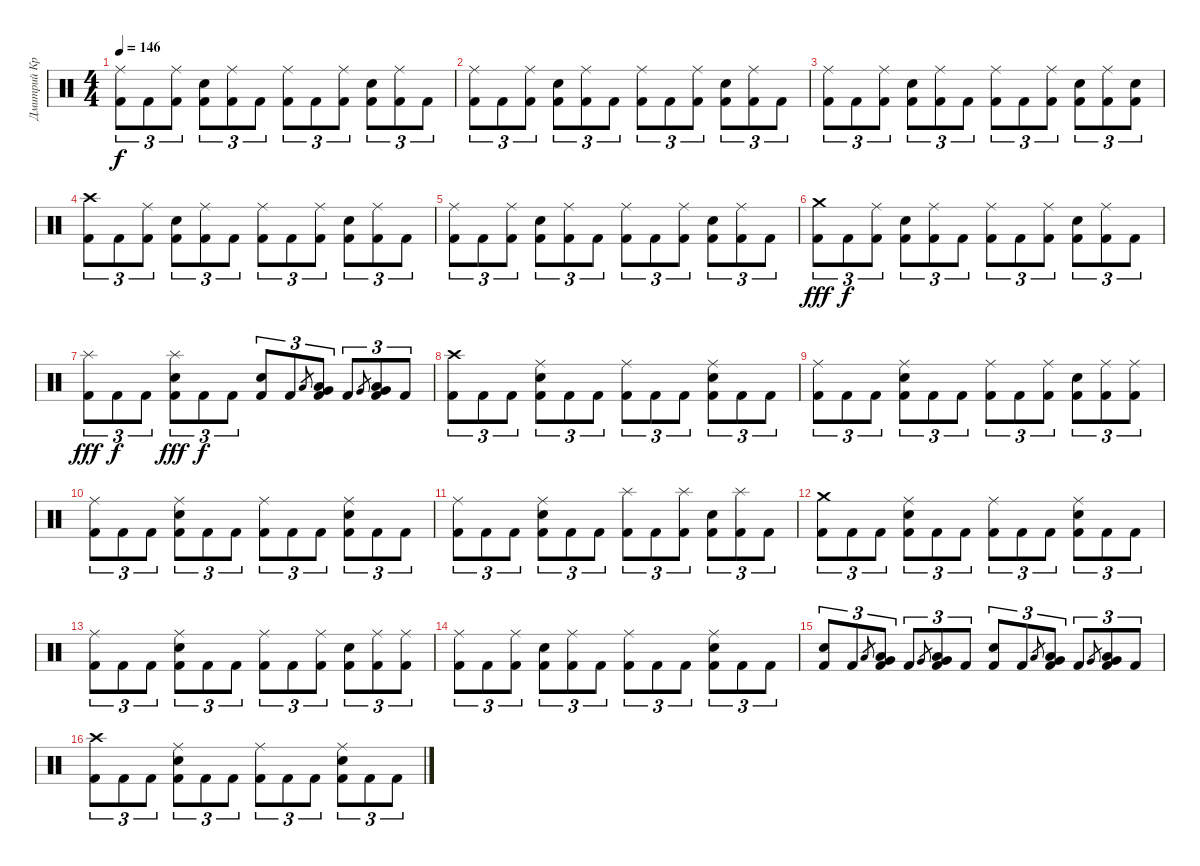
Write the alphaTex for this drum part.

\track ("Дмитрий Кривенков" "Дмитрий Кр") {instrument percussion}
\staff {score}
\articulation defaults
\ts (4 4)
\tempo 146
\clef neutral
\ks c
("Ride (middle)" "Kick (hit) 2").8{tu (3 2) dy f} "Kick (hit) 2".8{tu (3 2)} ("Ride (middle)" "Kick (hit) 2").8{tu (3 2)} ("Electric Snare (hit)" "Kick (hit) 2").8{tu (3 2)} ("Ride (middle)" "Kick (hit) 2").8{tu (3 2)} "Kick (hit) 2".8{tu (3 2)} ("Ride (middle)" "Kick (hit) 2").8{tu (3 2)} "Kick (hit) 2".8{tu (3 2)} ("Ride (middle)" "Kick (hit) 2").8{tu (3 2)} ("Electric Snare (hit)" "Kick (hit) 2").8{tu (3 2)} ("Ride (middle)" "Kick (hit) 2").8{tu (3 2)} "Kick (hit) 2".8{tu (3 2)} |
("Ride (middle)" "Kick (hit) 2").8{tu (3 2)} "Kick (hit) 2".8{tu (3 2)} ("Ride (middle)" "Kick (hit) 2").8{tu (3 2)} ("Electric Snare (hit)" "Kick (hit) 2").8{tu (3 2)} ("Ride (middle)" "Kick (hit) 2").8{tu (3 2)} "Kick (hit) 2".8{tu (3 2)} ("Ride (middle)" "Kick (hit) 2").8{tu (3 2)} "Kick (hit) 2".8{tu (3 2)} ("Ride (middle)" "Kick (hit) 2").8{tu (3 2)} ("Electric Snare (hit)" "Kick (hit) 2").8{tu (3 2)} ("Ride (middle)" "Kick (hit) 2").8{tu (3 2)} "Kick (hit) 2".8{tu (3 2)} |
("Ride (middle)" "Kick (hit) 2").8{tu (3 2)} "Kick (hit) 2".8{tu (3 2)} ("Ride (middle)" "Kick (hit) 2").8{tu (3 2)} ("Electric Snare (hit)" "Kick (hit) 2").8{tu (3 2)} ("Ride (middle)" "Kick (hit) 2").8{tu (3 2)} "Kick (hit) 2".8{tu (3 2)} ("Ride (middle)" "Kick (hit) 2").8{tu (3 2)} "Kick (hit) 2".8{tu (3 2)} ("Ride (middle)" "Kick (hit) 2").8{tu (3 2)} ("Electric Snare (hit)" "Kick (hit) 2").8{tu (3 2)} ("Ride (middle)" "Kick (hit) 2").8{tu (3 2)} ("Electric Snare (hit)" "Kick (hit) 2").8{tu (3 2)} |
("Crash high (hit)" "Kick (hit) 2").8{tu (3 2)} "Kick (hit) 2".8{tu (3 2)} ("Ride (middle)" "Kick (hit) 2").8{tu (3 2)} ("Electric Snare (hit)" "Kick (hit) 2").8{tu (3 2)} ("Ride (middle)" "Kick (hit) 2").8{tu (3 2)} "Kick (hit) 2".8{tu (3 2)} ("Ride (middle)" "Kick (hit) 2").8{tu (3 2)} "Kick (hit) 2".8{tu (3 2)} ("Ride (middle)" "Kick (hit) 2").8{tu (3 2)} ("Electric Snare (hit)" "Kick (hit) 2").8{tu (3 2)} ("Ride (middle)" "Kick (hit) 2").8{tu (3 2)} "Kick (hit) 2".8{tu (3 2)} |
("Ride (middle)" "Kick (hit) 2").8{tu (3 2)} "Kick (hit) 2".8{tu (3 2)} ("Ride (middle)" "Kick (hit) 2").8{tu (3 2)} ("Electric Snare (hit)" "Kick (hit) 2").8{tu (3 2)} ("Ride (middle)" "Kick (hit) 2").8{tu (3 2)} "Kick (hit) 2".8{tu (3 2)} ("Ride (middle)" "Kick (hit) 2").8{tu (3 2)} "Kick (hit) 2".8{tu (3 2)} ("Ride (middle)" "Kick (hit) 2").8{tu (3 2)} ("Electric Snare (hit)" "Kick (hit) 2").8{tu (3 2)} ("Ride (middle)" "Kick (hit) 2").8{tu (3 2)} "Kick (hit) 2".8{tu (3 2)} |
("Crash medium (hit)" "Kick (hit) 2").8{tu (3 2) dy fff} "Kick (hit) 2".8{tu (3 2) dy f} ("Ride (middle)" "Kick (hit) 2").8{tu (3 2)} ("Electric Snare (hit)" "Kick (hit) 2").8{tu (3 2)} ("Ride (middle)" "Kick (hit) 2").8{tu (3 2)} "Kick (hit) 2".8{tu (3 2)} ("Ride (middle)" "Kick (hit) 2").8{tu (3 2)} "Kick (hit) 2".8{tu (3 2)} ("Ride (middle)" "Kick (hit) 2").8{tu (3 2)} ("Electric Snare (hit)" "Kick (hit) 2").8{tu (3 2)} ("Ride (middle)" "Kick (hit) 2").8{tu (3 2)} "Kick (hit) 2".8{tu (3 2)} |
("Splash (hit)" "Kick (hit) 2").8{tu (3 2) dy fff} "Kick (hit) 2".8{tu (3 2) dy f} "Kick (hit) 2".8{tu (3 2)} ("Splash (hit)" "Electric Snare (hit)" "Kick (hit) 2").8{tu (3 2) dy fff} "Kick (hit) 2".8{tu (3 2) dy f} "Kick (hit) 2".8{tu (3 2)} ("Electric Snare (hit)" "Kick (hit) 2").8{tu (3 2)} "Kick (hit) 2".8{tu (3 2)} "Low Tom (hit)".8{gr} ("Low Tom (hit)" "Very Low Tom (hit)" "Kick (hit) 2").8{tu (3 2)} "Kick (hit) 2".8{tu (3 2)} "Very Low Tom (hit)".8{gr} ("Very Low Tom (hit)" "Low Floor Tom (hit)" "Kick (hit) 2").8{tu (3 2)} "Kick (hit) 2".8{tu (3 2)} |
("Crash high (hit)" "Kick (hit) 2").8{tu (3 2)} "Kick (hit) 2".8{tu (3 2)} "Kick (hit) 2".8{tu (3 2)} ("Ride (middle)" "Electric Snare (hit)" "Kick (hit) 2").8{tu (3 2)} "Kick (hit) 2".8{tu (3 2)} "Kick (hit) 2".8{tu (3 2)} ("Ride (middle)" "Kick (hit) 2").8{tu (3 2)} "Kick (hit) 2".8{tu (3 2)} "Kick (hit) 2".8{tu (3 2)} ("Ride (middle)" "Electric Snare (hit)" "Kick (hit) 2").8{tu (3 2)} "Kick (hit) 2".8{tu (3 2)} "Kick (hit) 2".8{tu (3 2)} |
("Ride (middle)" "Kick (hit) 2").8{tu (3 2)} "Kick (hit) 2".8{tu (3 2)} "Kick (hit) 2".8{tu (3 2)} ("Ride (middle)" "Electric Snare (hit)" "Kick (hit) 2").8{tu (3 2)} "Kick (hit) 2".8{tu (3 2)} "Kick (hit) 2".8{tu (3 2)} ("Ride (middle)" "Kick (hit) 2").8{tu (3 2)} "Kick (hit) 2".8{tu (3 2)} ("Ride (middle)" "Kick (hit) 2").8{tu (3 2)} ("Electric Snare (hit)" "Kick (hit) 2").8{tu (3 2)} ("Ride (middle)" "Kick (hit) 2").8{tu (3 2)} ("Ride (middle)" "Kick (hit) 2").8{tu (3 2)} |
("Ride (middle)" "Kick (hit) 2").8{tu (3 2)} "Kick (hit) 2".8{tu (3 2)} "Kick (hit) 2".8{tu (3 2)} ("Ride (middle)" "Electric Snare (hit)" "Kick (hit) 2").8{tu (3 2)} "Kick (hit) 2".8{tu (3 2)} "Kick (hit) 2".8{tu (3 2)} ("Ride (middle)" "Kick (hit) 2").8{tu (3 2)} "Kick (hit) 2".8{tu (3 2)} "Kick (hit) 2".8{tu (3 2)} ("Ride (middle)" "Electric Snare (hit)" "Kick (hit) 2").8{tu (3 2)} "Kick (hit) 2".8{tu (3 2)} "Kick (hit) 2".8{tu (3 2)} |
("Ride (middle)" "Kick (hit) 2").8{tu (3 2)} "Kick (hit) 2".8{tu (3 2)} "Kick (hit) 2".8{tu (3 2)} ("Ride (middle)" "Electric Snare (hit)" "Kick (hit) 2").8{tu (3 2)} "Kick (hit) 2".8{tu (3 2)} "Kick (hit) 2".8{tu (3 2)} ("Splash (hit)" "Kick (hit) 2").8{tu (3 2)} "Kick (hit) 2".8{tu (3 2)} ("Splash (hit)" "Kick (hit) 2").8{tu (3 2)} ("Electric Snare (hit)" "Kick (hit) 2").8{tu (3 2)} ("Splash (hit)" "Kick (hit) 2").8{tu (3 2)} "Kick (hit) 2".8{tu (3 2)} |
("Crash medium (hit)" "Kick (hit) 2").8{tu (3 2)} "Kick (hit) 2".8{tu (3 2)} "Kick (hit) 2".8{tu (3 2)} ("Ride (middle)" "Electric Snare (hit)" "Kick (hit) 2").8{tu (3 2)} "Kick (hit) 2".8{tu (3 2)} "Kick (hit) 2".8{tu (3 2)} ("Ride (middle)" "Kick (hit) 2").8{tu (3 2)} "Kick (hit) 2".8{tu (3 2)} "Kick (hit) 2".8{tu (3 2)} ("Ride (middle)" "Electric Snare (hit)" "Kick (hit) 2").8{tu (3 2)} "Kick (hit) 2".8{tu (3 2)} "Kick (hit) 2".8{tu (3 2)} |
("Ride (middle)" "Kick (hit) 2").8{tu (3 2)} "Kick (hit) 2".8{tu (3 2)} "Kick (hit) 2".8{tu (3 2)} ("Ride (middle)" "Electric Snare (hit)" "Kick (hit) 2").8{tu (3 2)} "Kick (hit) 2".8{tu (3 2)} "Kick (hit) 2".8{tu (3 2)} ("Ride (middle)" "Kick (hit) 2").8{tu (3 2)} "Kick (hit) 2".8{tu (3 2)} ("Ride (middle)" "Kick (hit) 2").8{tu (3 2)} ("Electric Snare (hit)" "Kick (hit) 2").8{tu (3 2)} ("Ride (middle)" "Kick (hit) 2").8{tu (3 2)} ("Ride (middle)" "Kick (hit) 2").8{tu (3 2)} |
("Ride (middle)" "Kick (hit) 2").8{tu (3 2)} "Kick (hit) 2".8{tu (3 2)} ("Ride (middle)" "Kick (hit) 2").8{tu (3 2)} ("Electric Snare (hit)" "Kick (hit) 2").8{tu (3 2)} ("Ride (middle)" "Kick (hit) 2").8{tu (3 2)} "Kick (hit) 2".8{tu (3 2)} ("Ride (middle)" "Kick (hit) 2").8{tu (3 2)} "Kick (hit) 2".8{tu (3 2)} "Kick (hit) 2".8{tu (3 2)} ("Ride (middle)" "Electric Snare (hit)" "Kick (hit) 2").8{tu (3 2)} "Kick (hit) 2".8{tu (3 2)} "Kick (hit) 2".8{tu (3 2)} |
("Electric Snare (hit)" "Kick (hit) 2").8{tu (3 2)} "Kick (hit) 2".8{tu (3 2)} "Low Tom (hit)".8{gr} ("Low Tom (hit)" "Very Low Tom (hit)" "Kick (hit) 2").8{tu (3 2)} "Kick (hit) 2".8{tu (3 2)} "Very Low Tom (hit)".8{gr} ("Very Low Tom (hit)" "Low Floor Tom (hit)" "Kick (hit) 2").8{tu (3 2)} "Kick (hit) 2".8{tu (3 2)} ("Electric Snare (hit)" "Kick (hit) 2").8{tu (3 2)} "Kick (hit) 2".8{tu (3 2)} "Low Tom (hit)".8{gr} ("Low Tom (hit)" "Very Low Tom (hit)" "Kick (hit) 2").8{tu (3 2)} "Kick (hit) 2".8{tu (3 2)} "Very Low Tom (hit)".8{gr} ("Very Low Tom (hit)" "Low Floor Tom (hit)" "Kick (hit) 2").8{tu (3 2)} "Kick (hit) 2".8{tu (3 2)} |
("Crash high (hit)" "Kick (hit) 2").8{tu (3 2)} "Kick (hit) 2".8{tu (3 2)} "Kick (hit) 2".8{tu (3 2)} ("Ride (middle)" "Electric Snare (hit)" "Kick (hit) 2").8{tu (3 2)} "Kick (hit) 2".8{tu (3 2)} "Kick (hit) 2".8{tu (3 2)} ("Ride (middle)" "Kick (hit) 2").8{tu (3 2)} "Kick (hit) 2".8{tu (3 2)} "Kick (hit) 2".8{tu (3 2)} ("Ride (middle)" "Electric Snare (hit)" "Kick (hit) 2").8{tu (3 2)} "Kick (hit) 2".8{tu (3 2)} "Kick (hit) 2".8{tu (3 2)}
